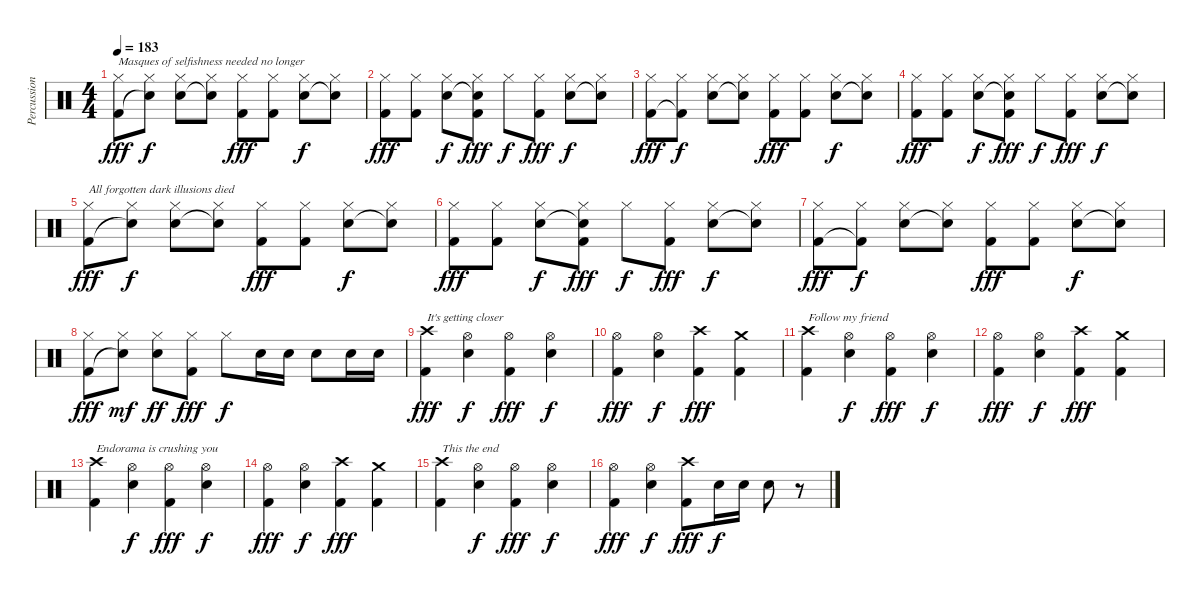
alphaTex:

\track ("Percussion" "Percussion") {instrument percussion}
\staff {score}
\articulation defaults
\ts (4 4)
\tempo 183
\clef neutral
\ks c
("Hi-Hat (closed)" "Kick (hit) 2").8{txt "Masques of selfishness needed no longer" dy fff} ("Hi-Hat (closed)" "Snare (hit)"{t}).8{dy f} ("Hi-Hat (closed)" "Snare (hit) 2").8 ("Hi-Hat (closed)" "Snare (hit)"{t}).8 ("Hi-Hat (closed)" "Kick (hit) 2").8{dy fff} ("Hi-Hat (closed)" "Kick (hit) 2").8 ("Hi-Hat (closed)" "Snare (hit) 2").8{dy f} ("Hi-Hat (closed)" "Snare (hit)"{t}).8 |
("Hi-Hat (closed)" "Kick (hit) 2").8{dy fff} ("Hi-Hat (closed)" "Kick (hit) 2").8 ("Hi-Hat (closed)" "Snare (hit) 2").8{dy f} ("Hi-Hat (closed)" "Snare (hit)"{t} "Kick (hit) 2").8{dy fff} "Hi-Hat (closed)".8{dy f} ("Hi-Hat (closed)" "Kick (hit) 2").8{dy fff} ("Hi-Hat (closed)" "Snare (hit) 2").8{dy f} ("Hi-Hat (closed)" "Snare (hit)"{t}).8 |
("Hi-Hat (closed)" "Kick (hit) 2").8{dy fff} ("Hi-Hat (closed)" "Kick (hit) 2"{t}).8{dy f} ("Hi-Hat (closed)" "Snare (hit) 2").8 ("Hi-Hat (closed)" "Snare (hit)"{t}).8 ("Hi-Hat (closed)" "Kick (hit) 2").8{dy fff} ("Hi-Hat (closed)" "Kick (hit) 2").8 ("Hi-Hat (closed)" "Snare (hit) 2").8{dy f} ("Hi-Hat (closed)" "Snare (hit)"{t}).8 |
("Hi-Hat (closed)" "Kick (hit) 2").8{dy fff} ("Hi-Hat (closed)" "Kick (hit) 2").8 ("Hi-Hat (closed)" "Snare (hit) 2").8{dy f} ("Hi-Hat (closed)" "Snare (hit)"{t} "Kick (hit) 2").8{dy fff} "Hi-Hat (closed)".8{dy f} ("Hi-Hat (closed)" "Kick (hit) 2").8{dy fff} ("Hi-Hat (closed)" "Snare (hit) 2").8{dy f} ("Hi-Hat (closed)" "Snare (hit)"{t}).8 |
("Hi-Hat (closed)" "Kick (hit) 2").8{txt "All forgotten dark illusions died" dy fff} ("Hi-Hat (closed)" "Snare (hit)"{t}).8{dy f} ("Hi-Hat (closed)" "Snare (hit) 2").8 ("Hi-Hat (closed)" "Snare (hit)"{t}).8 ("Hi-Hat (closed)" "Kick (hit) 2").8{dy fff} ("Hi-Hat (closed)" "Kick (hit) 2").8 ("Hi-Hat (closed)" "Snare (hit) 2").8{dy f} ("Hi-Hat (closed)" "Snare (hit)"{t}).8 |
("Hi-Hat (closed)" "Kick (hit) 2").8{dy fff} ("Hi-Hat (closed)" "Kick (hit) 2").8 ("Hi-Hat (closed)" "Snare (hit) 2").8{dy f} ("Hi-Hat (closed)" "Snare (hit)"{t} "Kick (hit) 2").8{dy fff} "Hi-Hat (closed)".8{dy f} ("Hi-Hat (closed)" "Kick (hit) 2").8{dy fff} ("Hi-Hat (closed)" "Snare (hit) 2").8{dy f} ("Hi-Hat (closed)" "Snare (hit)"{t}).8 |
("Hi-Hat (closed)" "Kick (hit) 2").8{dy fff} ("Hi-Hat (closed)" "Kick (hit) 2"{t}).8{dy f} ("Hi-Hat (closed)" "Snare (hit) 2").8 ("Hi-Hat (closed)" "Snare (hit)"{t}).8 ("Hi-Hat (closed)" "Kick (hit) 2").8{dy fff} ("Hi-Hat (closed)" "Kick (hit) 2").8 ("Hi-Hat (closed)" "Snare (hit) 2").8{dy f} ("Hi-Hat (closed)" "Snare (hit)"{t}).8 |
("Hi-Hat (closed)" "Kick (hit) 2").8{dy fff} ("Hi-Hat (closed)" "Snare (hit)"{t}).8{dy mf} ("Hi-Hat (closed)" "Snare (hit) 2").8{dy ff} ("Hi-Hat (closed)" "Kick (hit) 2").8{dy fff} "Hi-Hat (closed)".8{dy f} "Snare (hit) 2".16 "Snare (hit) 2".16 "Snare (hit) 2".8 "Snare (hit) 2".16 "Snare (hit) 2".16 |
("Crash high (hit)" "Kick (hit) 2").4{txt "It's getting closer" dy fff} ("Hi-Hat (open)" "Snare (hit) 2").4{dy f} ("Hi-Hat (open)" "Kick (hit) 2").4{dy fff} ("Hi-Hat (open)" "Snare (hit) 2").4{dy f} |
("Hi-Hat (open)" "Kick (hit) 2").4{dy fff} ("Hi-Hat (open)" "Snare (hit) 2").4{dy f} ("Crash high (hit)" "Kick (hit) 2").4{dy fff} ("Crash medium (hit)" "Kick (hit) 2").4 |
("Crash high (hit)" "Kick (hit) 2").4{txt "Follow my friend"} ("Hi-Hat (open)" "Snare (hit) 2").4{dy f} ("Hi-Hat (open)" "Kick (hit) 2").4{dy fff} ("Hi-Hat (open)" "Snare (hit) 2").4{dy f} |
("Hi-Hat (open)" "Kick (hit) 2").4{dy fff} ("Hi-Hat (open)" "Snare (hit) 2").4{dy f} ("Crash high (hit)" "Kick (hit) 2").4{dy fff} ("Crash medium (hit)" "Kick (hit) 2").4 |
("Crash high (hit)" "Kick (hit) 2").4{txt "Endorama is crushing you"} ("Hi-Hat (open)" "Snare (hit) 2").4{dy f} ("Hi-Hat (open)" "Kick (hit) 2").4{dy fff} ("Hi-Hat (open)" "Snare (hit) 2").4{dy f} |
("Hi-Hat (open)" "Kick (hit) 2").4{dy fff} ("Hi-Hat (open)" "Snare (hit) 2").4{dy f} ("Crash high (hit)" "Kick (hit) 2").4{dy fff} ("Crash medium (hit)" "Kick (hit) 2").4 |
("Crash high (hit)" "Kick (hit) 2").4{txt "This the end"} ("Hi-Hat (open)" "Snare (hit) 2").4{dy f} ("Hi-Hat (open)" "Kick (hit) 2").4{dy fff} ("Hi-Hat (open)" "Snare (hit) 2").4{dy f} |
("Hi-Hat (open)" "Kick (hit) 2").4{dy fff} ("Hi-Hat (open)" "Snare (hit) 2").4{dy f} ("Crash high (hit)" "Kick (hit) 2").8{dy fff} "Snare (hit) 2".16{dy f} "Snare (hit) 2".16 "Snare (hit) 2".8 r.8
